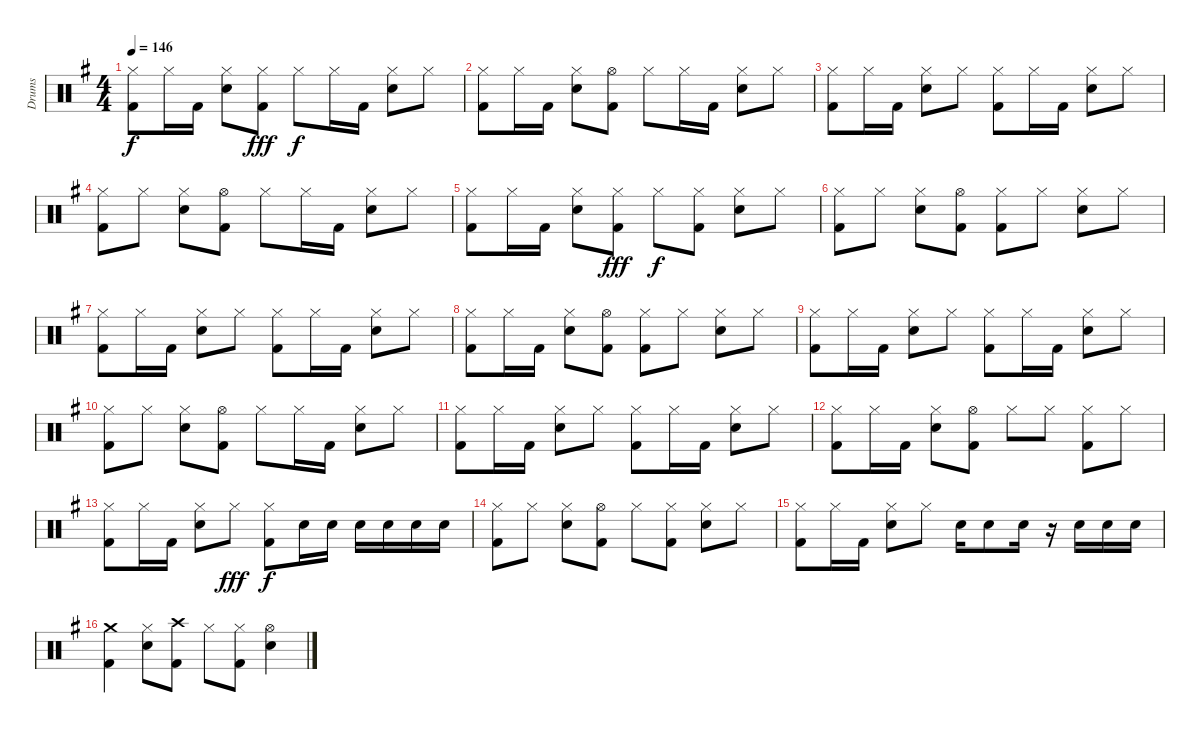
\track ("Drums" "Drums") {instrument percussion}
\staff {score}
\articulation defaults
\ts (4 4)
\tempo 146
\clef neutral
\ks g
("Kick (hit) 2" "Hi-Hat (closed)").8{dy f} "Hi-Hat (closed)".16 "Kick (hit) 2".16 ("Snare (hit) 2" "Hi-Hat (closed)").8 ("Kick (hit) 2" "Hi-Hat (closed)").8{dy fff} "Hi-Hat (closed)".8{dy f} "Hi-Hat (closed)".16 "Kick (hit) 2".16 ("Snare (hit) 2" "Hi-Hat (closed)").8 "Hi-Hat (closed)".8 |
("Kick (hit) 2" "Hi-Hat (closed)").8 "Hi-Hat (closed)".16 "Kick (hit) 2".16 ("Snare (hit) 2" "Hi-Hat (closed)").8 ("Kick (hit) 2" "Hi-Hat (open)").8 "Hi-Hat (closed)".8 "Hi-Hat (closed)".16 "Kick (hit) 2".16 ("Snare (hit) 2" "Hi-Hat (closed)").8 "Hi-Hat (closed)".8 |
("Kick (hit) 2" "Hi-Hat (closed)").8 "Hi-Hat (closed)".16 "Kick (hit) 2".16 ("Snare (hit) 2" "Hi-Hat (closed)").8 "Hi-Hat (closed)".8 ("Kick (hit) 2" "Hi-Hat (closed)").8 "Hi-Hat (closed)".16 "Kick (hit) 2".16 ("Snare (hit) 2" "Hi-Hat (closed)").8 "Hi-Hat (closed)".8 |
("Kick (hit) 2" "Hi-Hat (closed)").8 "Hi-Hat (closed)".8 ("Snare (hit) 2" "Hi-Hat (closed)").8 ("Kick (hit) 2" "Hi-Hat (open)").8 "Hi-Hat (closed)".8 "Hi-Hat (closed)".16 "Kick (hit) 2".16 ("Snare (hit) 2" "Hi-Hat (closed)").8 "Hi-Hat (closed)".8 |
("Kick (hit) 2" "Hi-Hat (closed)").8 "Hi-Hat (closed)".16 "Kick (hit) 2".16 ("Snare (hit) 2" "Hi-Hat (closed)").8 ("Kick (hit) 2" "Hi-Hat (closed)").8{dy fff} "Hi-Hat (closed)".8{dy f} ("Kick (hit) 2" "Hi-Hat (closed)").8 ("Snare (hit) 2" "Hi-Hat (closed)").8 "Hi-Hat (closed)".8 |
("Kick (hit) 2" "Hi-Hat (closed)").8 "Hi-Hat (closed)".8 ("Snare (hit) 2" "Hi-Hat (closed)").8 ("Kick (hit) 2" "Hi-Hat (open)").8 ("Kick (hit) 2" "Hi-Hat (closed)").8 "Hi-Hat (closed)".8 ("Snare (hit) 2" "Hi-Hat (closed)").8 "Hi-Hat (closed)".8 |
("Kick (hit) 2" "Hi-Hat (closed)").8 "Hi-Hat (closed)".16 "Kick (hit) 2".16 ("Snare (hit) 2" "Hi-Hat (closed)").8 "Hi-Hat (closed)".8 ("Kick (hit) 2" "Hi-Hat (closed)").8 "Hi-Hat (closed)".16 "Kick (hit) 2".16 ("Snare (hit) 2" "Hi-Hat (closed)").8 "Hi-Hat (closed)".8 |
("Kick (hit) 2" "Hi-Hat (closed)").8 "Hi-Hat (closed)".16 "Kick (hit) 2".16 ("Snare (hit) 2" "Hi-Hat (closed)").8 ("Kick (hit) 2" "Hi-Hat (open)").8 ("Kick (hit) 2" "Hi-Hat (closed)").8 "Hi-Hat (closed)".8 ("Snare (hit) 2" "Hi-Hat (closed)").8 "Hi-Hat (closed)".8 |
("Kick (hit) 2" "Hi-Hat (closed)").8 "Hi-Hat (closed)".16 "Kick (hit) 2".16 ("Snare (hit) 2" "Hi-Hat (closed)").8 "Hi-Hat (closed)".8 ("Kick (hit) 2" "Hi-Hat (closed)").8 "Hi-Hat (closed)".16 "Kick (hit) 2".16 ("Snare (hit) 2" "Hi-Hat (closed)").8 "Hi-Hat (closed)".8 |
("Kick (hit) 2" "Hi-Hat (closed)").8 "Hi-Hat (closed)".8 ("Snare (hit) 2" "Hi-Hat (closed)").8 ("Kick (hit) 2" "Hi-Hat (open)").8 "Hi-Hat (closed)".8 "Hi-Hat (closed)".16 "Kick (hit) 2".16 ("Snare (hit) 2" "Hi-Hat (closed)").8 "Hi-Hat (closed)".8 |
("Kick (hit) 2" "Hi-Hat (closed)").8 "Hi-Hat (closed)".16 "Kick (hit) 2".16 ("Snare (hit) 2" "Hi-Hat (closed)").8 "Hi-Hat (closed)".8 ("Kick (hit) 2" "Hi-Hat (closed)").8 "Hi-Hat (closed)".16 "Kick (hit) 2".16 ("Snare (hit) 2" "Hi-Hat (closed)").8 "Hi-Hat (closed)".8 |
("Kick (hit) 2" "Hi-Hat (closed)").8 "Hi-Hat (closed)".16 "Kick (hit) 2".16 ("Snare (hit) 2" "Hi-Hat (closed)").8 ("Kick (hit) 2" "Hi-Hat (open)").8 "Hi-Hat (closed)".8 "Hi-Hat (closed)".8 ("Kick (hit) 2" "Hi-Hat (closed)").8 "Hi-Hat (closed)".8 |
("Kick (hit) 2" "Hi-Hat (closed)").8 "Hi-Hat (closed)".16 "Kick (hit) 2".16 ("Snare (hit) 2" "Hi-Hat (closed)").8 "Hi-Hat (closed)".8{dy fff} ("Kick (hit) 2" "Hi-Hat (closed)").8{dy f} "Snare (hit) 2".16 "Snare (hit) 2".16 "Snare (hit) 2".16 "Snare (hit) 2".16 "Snare (hit) 2".16 "Snare (hit) 2".16 |
("Kick (hit) 2" "Hi-Hat (closed)").8 "Hi-Hat (closed)".8 ("Snare (hit) 2" "Hi-Hat (closed)").8 ("Kick (hit) 2" "Hi-Hat (open)").8 "Hi-Hat (closed)".8 ("Kick (hit) 2" "Hi-Hat (closed)").8 ("Snare (hit) 2" "Hi-Hat (closed)").8 "Hi-Hat (closed)".8 |
("Kick (hit) 2" "Hi-Hat (closed)").8 "Hi-Hat (closed)".16 "Kick (hit) 2".16 ("Snare (hit) 2" "Hi-Hat (closed)").8 "Hi-Hat (closed)".8 "Snare (hit) 2".16 "Snare (hit) 2".8 "Snare (hit) 2".16 r.16 "Snare (hit) 2".16 "Snare (hit) 2".16 "Snare (hit) 2".16 |
("Kick (hit) 2" "Crash medium (hit)").4 ("Snare (hit) 2" "Hi-Hat (closed)").8 ("Kick (hit) 2" "Crash high (hit)").8 "Hi-Hat (closed)".8 ("Kick (hit) 2" "Hi-Hat (closed)").8 ("Snare (hit) 2" "Hi-Hat (open)").4
